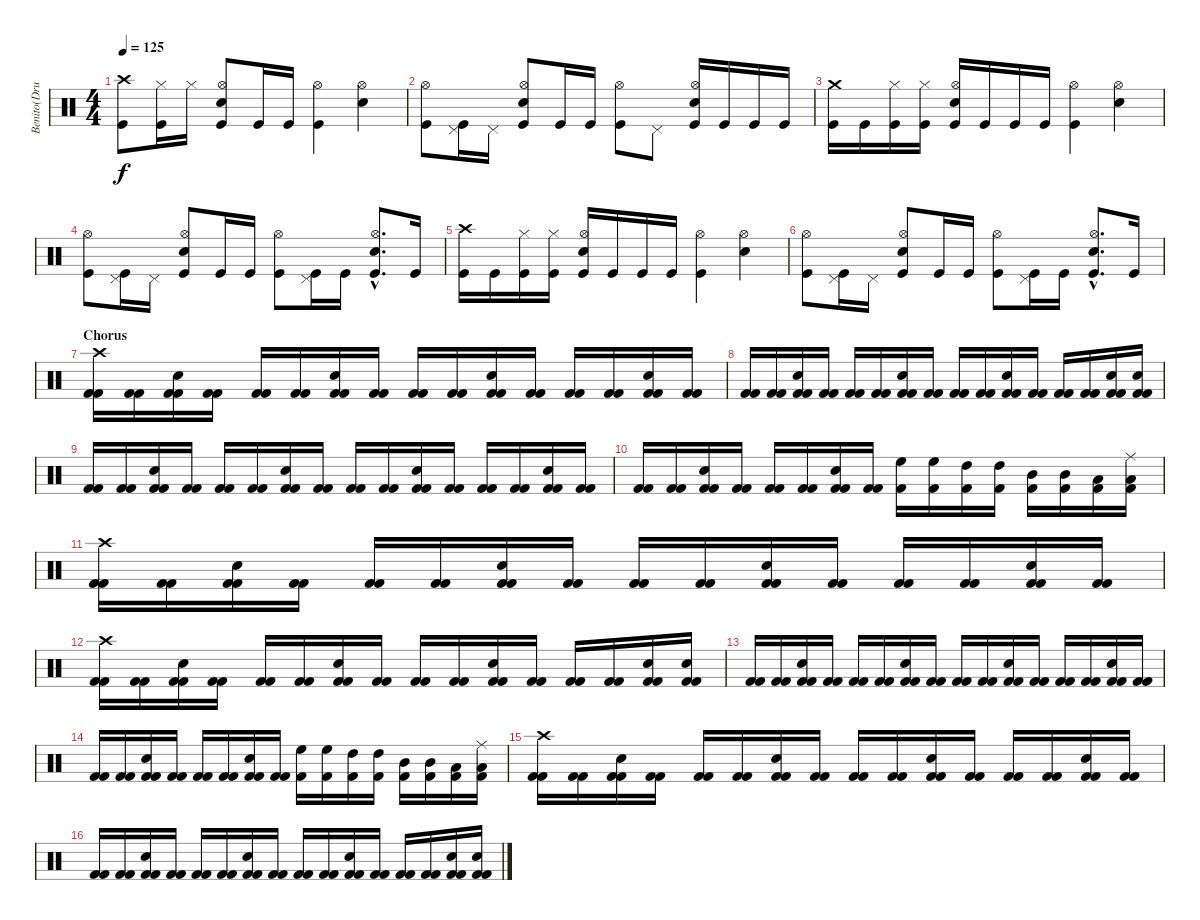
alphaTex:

\track ("Benito(Drums)" "Benito(Dru") {instrument percussion}
\staff {score}
\articulation defaults
\ts (4 4)
\tempo 125
\clef neutral
\ks c
("Crash high (hit)" "Kick (hit)").8{dy f} ("Hi-Hat (closed)" "Kick (hit)").16 "Hi-Hat (closed)".16 ("Hi-Hat (open)" "Electric Snare (hit)" "Kick (hit)").8 "Kick (hit)".16 "Kick (hit)".16 ("Hi-Hat (open)" "Kick (hit)").4 ("Hi-Hat (open)" "Electric Snare (hit)").4 |
("Hi-Hat (open)" "Kick (hit)").8 ("Pedal Hi-Hat (hit)" "Kick (hit)").16 "Pedal Hi-Hat (hit)".16 ("Hi-Hat (open)" "Electric Snare (hit)" "Kick (hit)").8 "Kick (hit)".16 "Kick (hit)".16 ("Hi-Hat (open)" "Kick (hit)").8 "Pedal Hi-Hat (hit)".8 ("Hi-Hat (open)" "Electric Snare (hit)" "Kick (hit)").16 "Kick (hit)".16 "Kick (hit)".16 "Kick (hit)".16 |
("Crash medium (hit)" "Kick (hit)").16 "Kick (hit)".16 ("Hi-Hat (closed)" "Kick (hit)").16 ("Hi-Hat (closed)" "Kick (hit)").16 ("Hi-Hat (open)" "Electric Snare (hit)" "Kick (hit)").16 "Kick (hit)".16 "Kick (hit)".16 "Kick (hit)".16 ("Hi-Hat (open)" "Kick (hit)").4 ("Hi-Hat (open)" "Electric Snare (hit)").4 |
("Hi-Hat (open)" "Kick (hit)").8 ("Pedal Hi-Hat (hit)" "Kick (hit)").16 "Pedal Hi-Hat (hit)".16 ("Hi-Hat (open)" "Electric Snare (hit)" "Kick (hit)").8 "Kick (hit)".16 "Kick (hit)".16 ("Hi-Hat (open)" "Kick (hit)").8 ("Pedal Hi-Hat (hit)" "Kick (hit)").16 "Kick (hit)".16 ("Hi-Hat (open)"{hac} "Electric Snare (hit)"{hac} "Kick (hit)"{hac}).8{d} "Kick (hit)".16 |
("Crash high (hit)" "Kick (hit)").16 "Kick (hit)".16 ("Hi-Hat (closed)" "Kick (hit)").16 ("Hi-Hat (closed)" "Kick (hit)").16 ("Hi-Hat (open)" "Electric Snare (hit)" "Kick (hit)").16 "Kick (hit)".16 "Kick (hit)".16 "Kick (hit)".16 ("Hi-Hat (open)" "Kick (hit)").4 ("Hi-Hat (open)" "Electric Snare (hit)").4 |
("Hi-Hat (open)" "Kick (hit)").8 ("Pedal Hi-Hat (hit)" "Kick (hit)").16 "Pedal Hi-Hat (hit)".16 ("Hi-Hat (open)" "Electric Snare (hit)" "Kick (hit)").8 "Kick (hit)".16 "Kick (hit)".16 ("Hi-Hat (open)" "Kick (hit)").8 ("Pedal Hi-Hat (hit)" "Kick (hit)").16 "Kick (hit)".16 ("Hi-Hat (open)"{hac} "Electric Snare (hit)"{hac} "Kick (hit)"{hac}).8{d} "Kick (hit)".16 |
\section ("" "Chorus")
("Kick (hit) 2" "Kick (hit) 2" "Crash high (hit)").16 ("Kick (hit) 2" "Kick (hit) 2").16 ("Kick (hit) 2" "Kick (hit) 2" "Electric Snare (hit)").16 ("Kick (hit) 2" "Kick (hit) 2").16 ("Kick (hit) 2" "Kick (hit) 2").16 ("Kick (hit) 2" "Kick (hit) 2").16 ("Kick (hit) 2" "Kick (hit) 2" "Electric Snare (hit)").16 ("Kick (hit) 2" "Kick (hit) 2").16 ("Kick (hit) 2" "Kick (hit) 2").16 ("Kick (hit) 2" "Kick (hit) 2").16 ("Kick (hit) 2" "Kick (hit) 2" "Electric Snare (hit)").16 ("Kick (hit) 2" "Kick (hit) 2").16 ("Kick (hit) 2" "Kick (hit) 2").16 ("Kick (hit) 2" "Kick (hit) 2").16 ("Kick (hit) 2" "Kick (hit) 2" "Electric Snare (hit)").16 ("Kick (hit) 2" "Kick (hit) 2").16 |
("Kick (hit) 2" "Kick (hit) 2").16 ("Kick (hit) 2" "Kick (hit) 2").16 ("Kick (hit) 2" "Kick (hit) 2" "Electric Snare (hit)").16 ("Kick (hit) 2" "Kick (hit) 2").16 ("Kick (hit) 2" "Kick (hit) 2").16 ("Kick (hit) 2" "Kick (hit) 2").16 ("Kick (hit) 2" "Kick (hit) 2" "Electric Snare (hit)").16 ("Kick (hit) 2" "Kick (hit) 2").16 ("Kick (hit) 2" "Kick (hit) 2").16 ("Kick (hit) 2" "Kick (hit) 2").16 ("Kick (hit) 2" "Kick (hit) 2" "Electric Snare (hit)").16 ("Kick (hit) 2" "Kick (hit) 2").16 ("Kick (hit) 2" "Kick (hit) 2").16 ("Kick (hit) 2" "Kick (hit) 2").16 ("Kick (hit) 2" "Kick (hit) 2" "Electric Snare (hit)").16 ("Kick (hit) 2" "Kick (hit) 2" "Electric Snare (hit)").16 |
("Kick (hit) 2" "Kick (hit) 2").16 ("Kick (hit) 2" "Kick (hit) 2").16 ("Kick (hit) 2" "Kick (hit) 2" "Electric Snare (hit)").16 ("Kick (hit) 2" "Kick (hit) 2").16 ("Kick (hit) 2" "Kick (hit) 2").16 ("Kick (hit) 2" "Kick (hit) 2").16 ("Kick (hit) 2" "Kick (hit) 2" "Electric Snare (hit)").16 ("Kick (hit) 2" "Kick (hit) 2").16 ("Kick (hit) 2" "Kick (hit) 2").16 ("Kick (hit) 2" "Kick (hit) 2").16 ("Kick (hit) 2" "Kick (hit) 2" "Electric Snare (hit)").16 ("Kick (hit) 2" "Kick (hit) 2").16 ("Kick (hit) 2" "Kick (hit) 2").16 ("Kick (hit) 2" "Kick (hit) 2").16 ("Kick (hit) 2" "Kick (hit) 2" "Electric Snare (hit)").16 ("Kick (hit) 2" "Kick (hit) 2").16 |
("Kick (hit) 2" "Kick (hit) 2").16 ("Kick (hit) 2" "Kick (hit) 2").16 ("Kick (hit) 2" "Kick (hit) 2" "Electric Snare (hit)").16 ("Kick (hit) 2" "Kick (hit) 2").16 ("Kick (hit) 2" "Kick (hit) 2").16 ("Kick (hit) 2" "Kick (hit) 2").16 ("Kick (hit) 2" "Kick (hit) 2" "Electric Snare (hit)").16 ("Kick (hit) 2" "Kick (hit) 2").16 ("Kick (hit) 2" "High Floor Tom (hit)").16 ("Kick (hit) 2" "High Floor Tom (hit)").16 ("Kick (hit) 2" "High Tom (hit)").16 ("Kick (hit) 2" "High Tom (hit)").16 ("Kick (hit) 2" "Mid Tom (hit)").16 ("Kick (hit) 2" "Mid Tom (hit)").16 ("Kick (hit) 2" "Low Tom (hit)").16 ("Kick (hit) 2" "Low Tom (hit)" "Ride (middle)").16 |
("Kick (hit) 2" "Kick (hit) 2" "Crash high (hit)").16 ("Kick (hit) 2" "Kick (hit) 2").16 ("Kick (hit) 2" "Kick (hit) 2" "Electric Snare (hit)").16 ("Kick (hit) 2" "Kick (hit) 2").16 ("Kick (hit) 2" "Kick (hit) 2").16 ("Kick (hit) 2" "Kick (hit) 2").16 ("Kick (hit) 2" "Kick (hit) 2" "Electric Snare (hit)").16 ("Kick (hit) 2" "Kick (hit) 2").16 ("Kick (hit) 2" "Kick (hit) 2").16 ("Kick (hit) 2" "Kick (hit) 2").16 ("Kick (hit) 2" "Kick (hit) 2" "Electric Snare (hit)").16 ("Kick (hit) 2" "Kick (hit) 2").16 ("Kick (hit) 2" "Kick (hit) 2").16 ("Kick (hit) 2" "Kick (hit) 2").16 ("Kick (hit) 2" "Kick (hit) 2" "Electric Snare (hit)").16 ("Kick (hit) 2" "Kick (hit) 2").16 |
("Kick (hit) 2" "Kick (hit) 2" "Crash high (hit)").16 ("Kick (hit) 2" "Kick (hit) 2").16 ("Kick (hit) 2" "Kick (hit) 2" "Electric Snare (hit)").16 ("Kick (hit) 2" "Kick (hit) 2").16 ("Kick (hit) 2" "Kick (hit) 2").16 ("Kick (hit) 2" "Kick (hit) 2").16 ("Kick (hit) 2" "Kick (hit) 2" "Electric Snare (hit)").16 ("Kick (hit) 2" "Kick (hit) 2").16 ("Kick (hit) 2" "Kick (hit) 2").16 ("Kick (hit) 2" "Kick (hit) 2").16 ("Kick (hit) 2" "Kick (hit) 2" "Electric Snare (hit)").16 ("Kick (hit) 2" "Kick (hit) 2").16 ("Kick (hit) 2" "Kick (hit) 2").16 ("Kick (hit) 2" "Kick (hit) 2").16 ("Kick (hit) 2" "Kick (hit) 2" "Electric Snare (hit)").16 ("Kick (hit) 2" "Kick (hit) 2" "Electric Snare (hit)").16 |
("Kick (hit) 2" "Kick (hit) 2").16 ("Kick (hit) 2" "Kick (hit) 2").16 ("Kick (hit) 2" "Kick (hit) 2" "Electric Snare (hit)").16 ("Kick (hit) 2" "Kick (hit) 2").16 ("Kick (hit) 2" "Kick (hit) 2").16 ("Kick (hit) 2" "Kick (hit) 2").16 ("Kick (hit) 2" "Kick (hit) 2" "Electric Snare (hit)").16 ("Kick (hit) 2" "Kick (hit) 2").16 ("Kick (hit) 2" "Kick (hit) 2").16 ("Kick (hit) 2" "Kick (hit) 2").16 ("Kick (hit) 2" "Kick (hit) 2" "Electric Snare (hit)").16 ("Kick (hit) 2" "Kick (hit) 2").16 ("Kick (hit) 2" "Kick (hit) 2").16 ("Kick (hit) 2" "Kick (hit) 2").16 ("Kick (hit) 2" "Kick (hit) 2" "Electric Snare (hit)").16 ("Kick (hit) 2" "Kick (hit) 2").16 |
("Kick (hit) 2" "Kick (hit) 2").16 ("Kick (hit) 2" "Kick (hit) 2").16 ("Kick (hit) 2" "Kick (hit) 2" "Electric Snare (hit)").16 ("Kick (hit) 2" "Kick (hit) 2").16 ("Kick (hit) 2" "Kick (hit) 2").16 ("Kick (hit) 2" "Kick (hit) 2").16 ("Kick (hit) 2" "Kick (hit) 2" "Electric Snare (hit)").16 ("Kick (hit) 2" "Kick (hit) 2").16 ("Kick (hit) 2" "High Floor Tom (hit)").16 ("Kick (hit) 2" "High Floor Tom (hit)").16 ("Kick (hit) 2" "High Tom (hit)").16 ("Kick (hit) 2" "High Tom (hit)").16 ("Kick (hit) 2" "Mid Tom (hit)").16 ("Kick (hit) 2" "Mid Tom (hit)").16 ("Kick (hit) 2" "Low Tom (hit)").16 ("Kick (hit) 2" "Low Tom (hit)" "Ride (middle)").16 |
("Kick (hit) 2" "Kick (hit) 2" "Crash high (hit)").16 ("Kick (hit) 2" "Kick (hit) 2").16 ("Kick (hit) 2" "Kick (hit) 2" "Electric Snare (hit)").16 ("Kick (hit) 2" "Kick (hit) 2").16 ("Kick (hit) 2" "Kick (hit) 2").16 ("Kick (hit) 2" "Kick (hit) 2").16 ("Kick (hit) 2" "Kick (hit) 2" "Electric Snare (hit)").16 ("Kick (hit) 2" "Kick (hit) 2").16 ("Kick (hit) 2" "Kick (hit) 2").16 ("Kick (hit) 2" "Kick (hit) 2").16 ("Kick (hit) 2" "Kick (hit) 2" "Electric Snare (hit)").16 ("Kick (hit) 2" "Kick (hit) 2").16 ("Kick (hit) 2" "Kick (hit) 2").16 ("Kick (hit) 2" "Kick (hit) 2").16 ("Kick (hit) 2" "Kick (hit) 2" "Electric Snare (hit)").16 ("Kick (hit) 2" "Kick (hit) 2").16 |
("Kick (hit) 2" "Kick (hit) 2").16 ("Kick (hit) 2" "Kick (hit) 2").16 ("Kick (hit) 2" "Kick (hit) 2" "Electric Snare (hit)").16 ("Kick (hit) 2" "Kick (hit) 2").16 ("Kick (hit) 2" "Kick (hit) 2").16 ("Kick (hit) 2" "Kick (hit) 2").16 ("Kick (hit) 2" "Kick (hit) 2" "Electric Snare (hit)").16 ("Kick (hit) 2" "Kick (hit) 2").16 ("Kick (hit) 2" "Kick (hit) 2").16 ("Kick (hit) 2" "Kick (hit) 2").16 ("Kick (hit) 2" "Kick (hit) 2" "Electric Snare (hit)").16 ("Kick (hit) 2" "Kick (hit) 2").16 ("Kick (hit) 2" "Kick (hit) 2").16 ("Kick (hit) 2" "Kick (hit) 2").16 ("Kick (hit) 2" "Kick (hit) 2" "Electric Snare (hit)").16 ("Kick (hit) 2" "Kick (hit) 2" "Electric Snare (hit)").16
